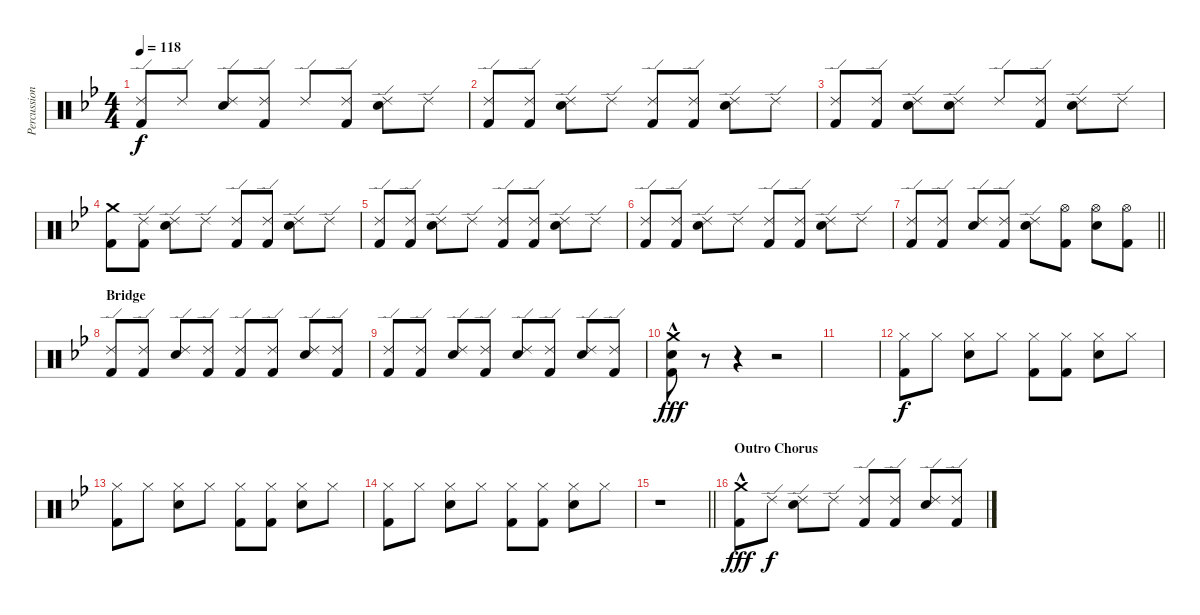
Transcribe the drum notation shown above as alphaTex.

\track ("Percussion" "Percussion") {instrument percussion}
\staff {score}
\articulation defaults
\ts (4 4)
\tempo 118
\clef neutral
\ks bb
("Ride (edge) 2" "Kick (hit) 2").8{dy f} "Ride (edge) 2".8 ("Ride (edge) 2" "Electric Snare (hit)").8 ("Ride (edge) 2" "Kick (hit) 2").8 "Ride (edge) 2".8 ("Ride (edge) 2" "Kick (hit) 2").8 ("Ride (edge) 2" "Electric Snare (hit)").8 "Ride (edge) 2".8 |
("Ride (edge) 2" "Kick (hit) 2").8 ("Ride (edge) 2" "Kick (hit) 2").8 ("Ride (edge) 2" "Electric Snare (hit)").8 "Ride (edge) 2".8 ("Ride (edge) 2" "Kick (hit) 2").8 ("Ride (edge) 2" "Kick (hit) 2").8 ("Ride (edge) 2" "Electric Snare (hit)").8 "Ride (edge) 2".8 |
("Ride (edge) 2" "Kick (hit) 2").8 ("Ride (edge) 2" "Kick (hit) 2").8 ("Ride (edge) 2" "Electric Snare (hit)").8 ("Ride (edge) 2" "Electric Snare (hit)").8 "Ride (edge) 2".8 ("Ride (edge) 2" "Kick (hit) 2").8 ("Ride (edge) 2" "Electric Snare (hit)").8 "Ride (edge) 2".8 |
("Crash medium (hit)" "Kick (hit) 2").8 ("Ride (edge) 2" "Kick (hit) 2").8 ("Ride (edge) 2" "Electric Snare (hit)").8 "Ride (edge) 2".8 ("Ride (edge) 2" "Kick (hit) 2").8 ("Ride (edge) 2" "Kick (hit) 2").8 ("Ride (edge) 2" "Electric Snare (hit)").8 "Ride (edge) 2".8 |
("Ride (edge) 2" "Kick (hit) 2").8 ("Ride (edge) 2" "Kick (hit) 2").8 ("Ride (edge) 2" "Electric Snare (hit)").8 "Ride (edge) 2".8 ("Ride (edge) 2" "Kick (hit) 2").8 ("Ride (edge) 2" "Kick (hit) 2").8 ("Ride (edge) 2" "Electric Snare (hit)").8 "Ride (edge) 2".8 |
("Ride (edge) 2" "Kick (hit) 2").8 ("Ride (edge) 2" "Kick (hit) 2").8 ("Ride (edge) 2" "Electric Snare (hit)").8 "Ride (edge) 2".8 ("Ride (edge) 2" "Kick (hit) 2").8 ("Ride (edge) 2" "Kick (hit) 2").8 ("Ride (edge) 2" "Electric Snare (hit)").8 "Ride (edge) 2".8 |
\barLineRight lightlight
("Ride (edge) 2" "Kick (hit) 2").8 ("Ride (edge) 2" "Kick (hit) 2").8 ("Ride (edge) 2" "Electric Snare (hit)").8 ("Ride (edge) 2" "Kick (hit) 2").8 ("Ride (edge) 2" "Electric Snare (hit)").8 ("Hi-Hat (open)" "Kick (hit) 2").8 ("Hi-Hat (open)" "Electric Snare (hit)").8 ("Hi-Hat (open)" "Kick (hit) 2").8 |
\section ("" "Bridge")
("Ride (edge) 2" "Kick (hit) 2").8 ("Ride (edge) 2" "Kick (hit) 2").8 ("Ride (edge) 2" "Electric Snare (hit)").8 ("Ride (edge) 2" "Kick (hit) 2").8 ("Ride (edge) 2" "Kick (hit) 2").8 ("Ride (edge) 2" "Kick (hit) 2").8 ("Ride (edge) 2" "Electric Snare (hit)").8 ("Ride (edge) 2" "Kick (hit) 2").8 |
("Ride (edge) 2" "Kick (hit) 2").8 ("Ride (edge) 2" "Kick (hit) 2").8 ("Ride (edge) 2" "Electric Snare (hit)").8 ("Ride (edge) 2" "Kick (hit) 2").8 ("Ride (edge) 2" "Electric Snare (hit)").8 ("Ride (edge) 2" "Kick (hit) 2").8 ("Ride (edge) 2" "Electric Snare (hit)").8 ("Ride (edge) 2" "Kick (hit) 2").8 |
("Crash medium (hit)"{hac} "Electric Snare (hit)"{hac} "Kick (hit) 2").8{dy fff} r.8 r.4 r.2 |
|
("Hi-Hat (closed)" "Kick (hit) 2").8{dy f volume 10} "Hi-Hat (closed)".8 ("Hi-Hat (closed)" "Electric Snare (hit)").8 "Hi-Hat (closed)".8 ("Hi-Hat (closed)" "Kick (hit) 2").8 ("Hi-Hat (closed)" "Kick (hit) 2").8 ("Hi-Hat (closed)" "Electric Snare (hit)").8 "Hi-Hat (closed)".8 |
("Hi-Hat (closed)" "Kick (hit) 2").8 "Hi-Hat (closed)".8 ("Hi-Hat (closed)" "Electric Snare (hit)").8 "Hi-Hat (closed)".8 ("Hi-Hat (closed)" "Kick (hit) 2").8 ("Hi-Hat (closed)" "Kick (hit) 2").8 ("Hi-Hat (closed)" "Electric Snare (hit)").8 "Hi-Hat (closed)".8 |
("Hi-Hat (closed)" "Kick (hit) 2").8 "Hi-Hat (closed)".8 ("Hi-Hat (closed)" "Electric Snare (hit)").8 "Hi-Hat (closed)".8 ("Hi-Hat (closed)" "Kick (hit) 2").8 ("Hi-Hat (closed)" "Kick (hit) 2").8 ("Hi-Hat (closed)" "Electric Snare (hit)").8 "Hi-Hat (closed)".8 |
\barLineRight lightlight
r.1 |
\section ("" "Outro Chorus")
("Crash medium (hit)"{hac} "Kick (hit) 2").8{dy fff volume 16} "Ride (edge) 2".8{dy f} ("Ride (edge) 2" "Electric Snare (hit)").8 "Ride (edge) 2".8 ("Ride (edge) 2" "Kick (hit) 2").8 ("Ride (edge) 2" "Kick (hit) 2").8 ("Ride (edge) 2" "Electric Snare (hit)").8 ("Ride (edge) 2" "Kick (hit) 2").8
